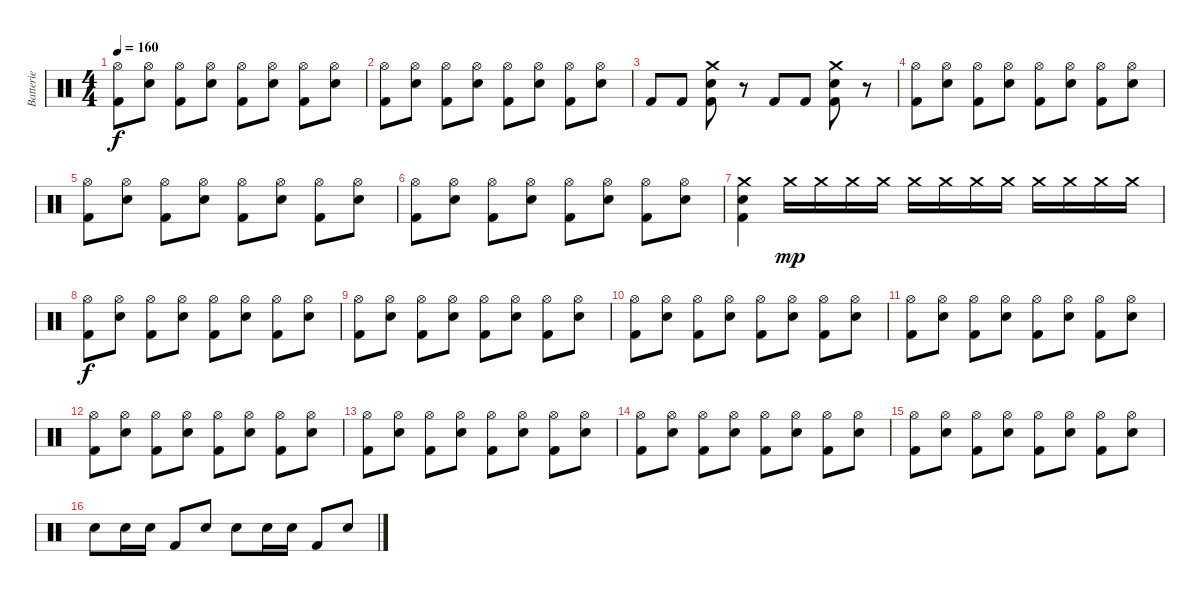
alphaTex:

\track ("Batterie" "Batterie") {instrument percussion}
\staff {score}
\articulation defaults
\ts (4 4)
\tempo 160
\clef neutral
\ks c
("Kick (hit) 2" "Hi-Hat (open)").8{dy f} ("Electric Snare (hit)" "Hi-Hat (open)").8 ("Kick (hit) 2" "Hi-Hat (open)").8 ("Electric Snare (hit)" "Hi-Hat (open)").8 ("Kick (hit) 2" "Hi-Hat (open)").8 ("Electric Snare (hit)" "Hi-Hat (open)").8 ("Kick (hit) 2" "Hi-Hat (open)").8 ("Electric Snare (hit)" "Hi-Hat (open)").8 |
("Kick (hit) 2" "Hi-Hat (open)").8 ("Electric Snare (hit)" "Hi-Hat (open)").8 ("Kick (hit) 2" "Hi-Hat (open)").8 ("Electric Snare (hit)" "Hi-Hat (open)").8 ("Kick (hit) 2" "Hi-Hat (open)").8 ("Electric Snare (hit)" "Hi-Hat (open)").8 ("Kick (hit) 2" "Hi-Hat (open)").8 ("Electric Snare (hit)" "Hi-Hat (open)").8 |
"Kick (hit) 2".8 "Kick (hit) 2".8 ("Electric Snare (hit)" "Kick (hit) 2" "Crash medium (hit)").8 r.8 "Kick (hit) 2".8 "Kick (hit) 2".8 ("Electric Snare (hit)" "Kick (hit) 2" "Crash medium (hit)").8 r.8 |
("Kick (hit) 2" "Hi-Hat (open)").8 ("Electric Snare (hit)" "Hi-Hat (open)").8 ("Kick (hit) 2" "Hi-Hat (open)").8 ("Electric Snare (hit)" "Hi-Hat (open)").8 ("Kick (hit) 2" "Hi-Hat (open)").8 ("Electric Snare (hit)" "Hi-Hat (open)").8 ("Kick (hit) 2" "Hi-Hat (open)").8 ("Electric Snare (hit)" "Hi-Hat (open)").8 |
("Kick (hit) 2" "Hi-Hat (open)").8 ("Electric Snare (hit)" "Hi-Hat (open)").8 ("Kick (hit) 2" "Hi-Hat (open)").8 ("Electric Snare (hit)" "Hi-Hat (open)").8 ("Kick (hit) 2" "Hi-Hat (open)").8 ("Electric Snare (hit)" "Hi-Hat (open)").8 ("Kick (hit) 2" "Hi-Hat (open)").8 ("Electric Snare (hit)" "Hi-Hat (open)").8 |
("Kick (hit) 2" "Hi-Hat (open)").8 ("Electric Snare (hit)" "Hi-Hat (open)").8 ("Kick (hit) 2" "Hi-Hat (open)").8 ("Electric Snare (hit)" "Hi-Hat (open)").8 ("Kick (hit) 2" "Hi-Hat (open)").8 ("Electric Snare (hit)" "Hi-Hat (open)").8 ("Kick (hit) 2" "Hi-Hat (open)").8 ("Electric Snare (hit)" "Hi-Hat (open)").8 |
("Kick (hit) 2" "Electric Snare (hit)" "Crash medium (hit)").4 "Crash medium (hit)".16{dy mp} "Crash medium (hit)".16 "Crash medium (hit)".16 "Crash medium (hit)".16 "Crash medium (hit)".16 "Crash medium (hit)".16 "Crash medium (hit)".16 "Crash medium (hit)".16 "Crash medium (hit)".16 "Crash medium (hit)".16 "Crash medium (hit)".16 "Crash medium (hit)".16 |
("Kick (hit) 2" "Hi-Hat (open)").8{dy f} ("Electric Snare (hit)" "Hi-Hat (open)").8 ("Kick (hit) 2" "Hi-Hat (open)").8 ("Electric Snare (hit)" "Hi-Hat (open)").8 ("Kick (hit) 2" "Hi-Hat (open)").8 ("Electric Snare (hit)" "Hi-Hat (open)").8 ("Kick (hit) 2" "Hi-Hat (open)").8 ("Electric Snare (hit)" "Hi-Hat (open)").8 |
("Kick (hit) 2" "Hi-Hat (open)").8 ("Electric Snare (hit)" "Hi-Hat (open)").8 ("Kick (hit) 2" "Hi-Hat (open)").8 ("Electric Snare (hit)" "Hi-Hat (open)").8 ("Kick (hit) 2" "Hi-Hat (open)").8 ("Electric Snare (hit)" "Hi-Hat (open)").8 ("Kick (hit) 2" "Hi-Hat (open)").8 ("Electric Snare (hit)" "Hi-Hat (open)").8 |
("Kick (hit) 2" "Hi-Hat (open)").8 ("Electric Snare (hit)" "Hi-Hat (open)").8 ("Kick (hit) 2" "Hi-Hat (open)").8 ("Electric Snare (hit)" "Hi-Hat (open)").8 ("Kick (hit) 2" "Hi-Hat (open)").8 ("Electric Snare (hit)" "Hi-Hat (open)").8 ("Kick (hit) 2" "Hi-Hat (open)").8 ("Electric Snare (hit)" "Hi-Hat (open)").8 |
("Kick (hit) 2" "Hi-Hat (open)").8 ("Electric Snare (hit)" "Hi-Hat (open)").8 ("Kick (hit) 2" "Hi-Hat (open)").8 ("Electric Snare (hit)" "Hi-Hat (open)").8 ("Kick (hit) 2" "Hi-Hat (open)").8 ("Electric Snare (hit)" "Hi-Hat (open)").8 ("Kick (hit) 2" "Hi-Hat (open)").8 ("Electric Snare (hit)" "Hi-Hat (open)").8 |
("Kick (hit) 2" "Hi-Hat (open)").8 ("Electric Snare (hit)" "Hi-Hat (open)").8 ("Kick (hit) 2" "Hi-Hat (open)").8 ("Electric Snare (hit)" "Hi-Hat (open)").8 ("Kick (hit) 2" "Hi-Hat (open)").8 ("Electric Snare (hit)" "Hi-Hat (open)").8 ("Kick (hit) 2" "Hi-Hat (open)").8 ("Electric Snare (hit)" "Hi-Hat (open)").8 |
("Kick (hit) 2" "Hi-Hat (open)").8 ("Electric Snare (hit)" "Hi-Hat (open)").8 ("Kick (hit) 2" "Hi-Hat (open)").8 ("Electric Snare (hit)" "Hi-Hat (open)").8 ("Kick (hit) 2" "Hi-Hat (open)").8 ("Electric Snare (hit)" "Hi-Hat (open)").8 ("Kick (hit) 2" "Hi-Hat (open)").8 ("Electric Snare (hit)" "Hi-Hat (open)").8 |
("Kick (hit) 2" "Hi-Hat (open)").8 ("Electric Snare (hit)" "Hi-Hat (open)").8 ("Kick (hit) 2" "Hi-Hat (open)").8 ("Electric Snare (hit)" "Hi-Hat (open)").8 ("Kick (hit) 2" "Hi-Hat (open)").8 ("Electric Snare (hit)" "Hi-Hat (open)").8 ("Kick (hit) 2" "Hi-Hat (open)").8 ("Electric Snare (hit)" "Hi-Hat (open)").8 |
("Kick (hit) 2" "Hi-Hat (open)").8 ("Electric Snare (hit)" "Hi-Hat (open)").8 ("Kick (hit) 2" "Hi-Hat (open)").8 ("Electric Snare (hit)" "Hi-Hat (open)").8 ("Kick (hit) 2" "Hi-Hat (open)").8 ("Electric Snare (hit)" "Hi-Hat (open)").8 ("Kick (hit) 2" "Hi-Hat (open)").8 ("Electric Snare (hit)" "Hi-Hat (open)").8 |
"Electric Snare (hit)".8 "Electric Snare (hit)".16 "Electric Snare (hit)".16 "Kick (hit) 2".8 "Electric Snare (hit)".8 "Electric Snare (hit)".8 "Electric Snare (hit)".16 "Electric Snare (hit)".16 "Kick (hit) 2".8 "Electric Snare (hit)".8
